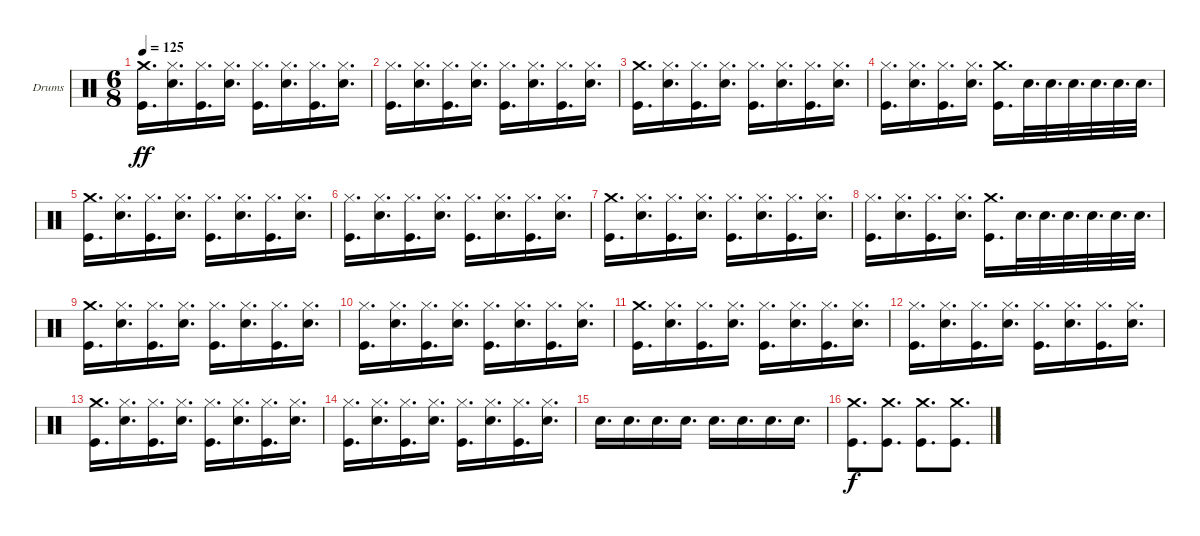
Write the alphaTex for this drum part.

\defaultSystemsLayout 4
\bracketExtendMode groupsimilarinstruments
\firstSystemTrackNameOrientation horizontal
\otherSystemsTrackNameOrientation horizontal
\track ("Drumkit" "Drums") {instrument percussion}
\staff {score}
\articulation defaults
\ts (6 8)
\tempo 125
\clef neutral
\ks c
("Kick (hit)" "Crash medium (hit)").16{d dy ff} ("Snare (hit) 2" "Hi-Hat (closed)").16{d} ("Kick (hit)" "Hi-Hat (closed)").16{d} ("Snare (hit) 2" "Hi-Hat (closed)").16{d} ("Kick (hit)" "Hi-Hat (closed)").16{d} ("Snare (hit) 2" "Hi-Hat (closed)").16{d} ("Kick (hit)" "Hi-Hat (closed)").16{d} ("Snare (hit) 2" "Hi-Hat (closed)").16{d} |
("Kick (hit)" "Hi-Hat (closed)").16{d} ("Snare (hit) 2" "Hi-Hat (closed)").16{d} ("Kick (hit)" "Hi-Hat (closed)").16{d} ("Snare (hit) 2" "Hi-Hat (closed)").16{d} ("Kick (hit)" "Hi-Hat (closed)").16{d} ("Snare (hit) 2" "Hi-Hat (closed)").16{d} ("Kick (hit)" "Hi-Hat (closed)").16{d} ("Snare (hit) 2" "Hi-Hat (closed)").16{d} |
("Kick (hit)" "Crash medium (hit)").16{d} ("Snare (hit) 2" "Hi-Hat (closed)").16{d} ("Kick (hit)" "Hi-Hat (closed)").16{d} ("Snare (hit) 2" "Hi-Hat (closed)").16{d} ("Kick (hit)" "Hi-Hat (closed)").16{d} ("Snare (hit) 2" "Hi-Hat (closed)").16{d} ("Kick (hit)" "Hi-Hat (closed)").16{d} ("Snare (hit) 2" "Hi-Hat (closed)").16{d} |
("Kick (hit)" "Hi-Hat (closed)").16{d} ("Snare (hit) 2" "Hi-Hat (closed)").16{d} ("Kick (hit)" "Hi-Hat (closed)").16{d} ("Snare (hit) 2" "Hi-Hat (closed)").16{d} ("Kick (hit)" "Crash medium (hit)").16{d} "Snare (hit) 2".32{d} "Snare (hit) 2".32{d} "Snare (hit) 2".32{d} "Snare (hit) 2".32{d} "Snare (hit) 2".32{d} "Snare (hit) 2".32{d} |
("Kick (hit)" "Crash medium (hit)").16{d} ("Snare (hit) 2" "Hi-Hat (closed)").16{d} ("Kick (hit)" "Hi-Hat (closed)").16{d} ("Snare (hit) 2" "Hi-Hat (closed)").16{d} ("Kick (hit)" "Hi-Hat (closed)").16{d} ("Snare (hit) 2" "Hi-Hat (closed)").16{d} ("Kick (hit)" "Hi-Hat (closed)").16{d} ("Snare (hit) 2" "Hi-Hat (closed)").16{d} |
("Kick (hit)" "Hi-Hat (closed)").16{d} ("Snare (hit) 2" "Hi-Hat (closed)").16{d} ("Kick (hit)" "Hi-Hat (closed)").16{d} ("Snare (hit) 2" "Hi-Hat (closed)").16{d} ("Kick (hit)" "Hi-Hat (closed)").16{d} ("Snare (hit) 2" "Hi-Hat (closed)").16{d} ("Kick (hit)" "Hi-Hat (closed)").16{d} ("Snare (hit) 2" "Hi-Hat (closed)").16{d} |
("Kick (hit)" "Crash medium (hit)").16{d} ("Snare (hit) 2" "Hi-Hat (closed)").16{d} ("Kick (hit)" "Hi-Hat (closed)").16{d} ("Snare (hit) 2" "Hi-Hat (closed)").16{d} ("Kick (hit)" "Hi-Hat (closed)").16{d} ("Snare (hit) 2" "Hi-Hat (closed)").16{d} ("Kick (hit)" "Hi-Hat (closed)").16{d} ("Snare (hit) 2" "Hi-Hat (closed)").16{d} |
("Kick (hit)" "Hi-Hat (closed)").16{d} ("Snare (hit) 2" "Hi-Hat (closed)").16{d} ("Kick (hit)" "Hi-Hat (closed)").16{d} ("Snare (hit) 2" "Hi-Hat (closed)").16{d} ("Kick (hit)" "Crash medium (hit)").16{d} "Snare (hit) 2".32{d} "Snare (hit) 2".32{d} "Snare (hit) 2".32{d} "Snare (hit) 2".32{d} "Snare (hit) 2".32{d} "Snare (hit) 2".32{d} |
("Kick (hit)" "Crash medium (hit)").16{d} ("Snare (hit) 2" "Hi-Hat (closed)").16{d} ("Kick (hit)" "Hi-Hat (closed)").16{d} ("Snare (hit) 2" "Hi-Hat (closed)").16{d} ("Kick (hit)" "Hi-Hat (closed)").16{d} ("Snare (hit) 2" "Hi-Hat (closed)").16{d} ("Kick (hit)" "Hi-Hat (closed)").16{d} ("Snare (hit) 2" "Hi-Hat (closed)").16{d} |
("Kick (hit)" "Hi-Hat (closed)").16{d} ("Snare (hit) 2" "Hi-Hat (closed)").16{d} ("Kick (hit)" "Hi-Hat (closed)").16{d} ("Snare (hit) 2" "Hi-Hat (closed)").16{d} ("Kick (hit)" "Hi-Hat (closed)").16{d} ("Snare (hit) 2" "Hi-Hat (closed)").16{d} ("Kick (hit)" "Hi-Hat (closed)").16{d} ("Snare (hit) 2" "Hi-Hat (closed)").16{d} |
("Kick (hit)" "Crash medium (hit)").16{d} ("Snare (hit) 2" "Hi-Hat (closed)").16{d} ("Kick (hit)" "Hi-Hat (closed)").16{d} ("Snare (hit) 2" "Hi-Hat (closed)").16{d} ("Kick (hit)" "Hi-Hat (closed)").16{d} ("Snare (hit) 2" "Hi-Hat (closed)").16{d} ("Kick (hit)" "Hi-Hat (closed)").16{d} ("Snare (hit) 2" "Hi-Hat (closed)").16{d} |
("Kick (hit)" "Hi-Hat (closed)").16{d} ("Snare (hit) 2" "Hi-Hat (closed)").16{d} ("Kick (hit)" "Hi-Hat (closed)").16{d} ("Snare (hit) 2" "Hi-Hat (closed)").16{d} ("Kick (hit)" "Hi-Hat (closed)").16{d} ("Snare (hit) 2" "Hi-Hat (closed)").16{d} ("Kick (hit)" "Hi-Hat (closed)").16{d} ("Snare (hit) 2" "Hi-Hat (closed)").16{d} |
("Kick (hit)" "Crash medium (hit)").16{d} ("Snare (hit) 2" "Hi-Hat (closed)").16{d} ("Kick (hit)" "Hi-Hat (closed)").16{d} ("Snare (hit) 2" "Hi-Hat (closed)").16{d} ("Kick (hit)" "Hi-Hat (closed)").16{d} ("Snare (hit) 2" "Hi-Hat (closed)").16{d} ("Kick (hit)" "Hi-Hat (closed)").16{d} ("Snare (hit) 2" "Hi-Hat (closed)").16{d} |
("Kick (hit)" "Hi-Hat (closed)").16{d} ("Snare (hit) 2" "Hi-Hat (closed)").16{d} ("Kick (hit)" "Hi-Hat (closed)").16{d} ("Snare (hit) 2" "Hi-Hat (closed)").16{d} ("Kick (hit)" "Hi-Hat (closed)").16{d} ("Snare (hit) 2" "Hi-Hat (closed)").16{d} ("Kick (hit)" "Hi-Hat (closed)").16{d} ("Snare (hit) 2" "Hi-Hat (closed)").16{d} |
"Snare (hit) 2".16{d} "Snare (hit) 2".16{d} "Snare (hit) 2".16{d} "Snare (hit) 2".16{d} "Snare (hit) 2".16{d} "Snare (hit) 2".16{d} "Snare (hit) 2".16{d} "Snare (hit) 2".16{d} |
("Kick (hit)" "Crash medium (hit)").8{d dy f} ("Kick (hit)" "Crash medium (hit)").8{d} ("Kick (hit)" "Crash medium (hit)").8{d} ("Kick (hit)" "Crash medium (hit)").8{d}
